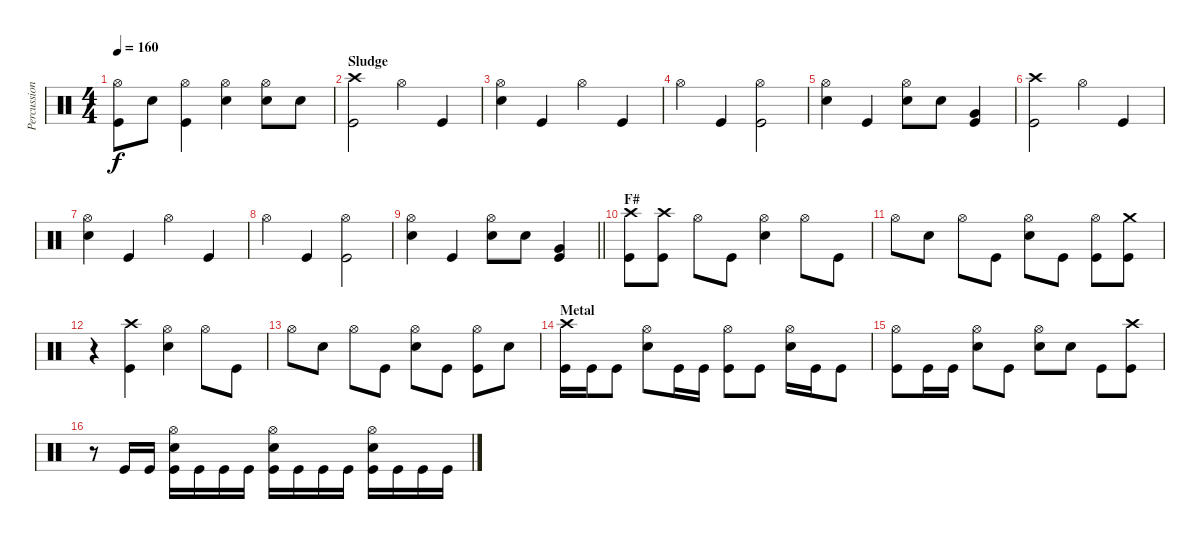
\track ("Percussion" "Percussion") {instrument percussion}
\staff {score}
\articulation defaults
\ts (4 4)
\tempo 160
\clef neutral
\ks c
("Hi-Hat (open)" "Kick (hit)").8{dy f} "Electric Snare (hit)".8 ("Hi-Hat (open)" "Kick (hit)").4 ("Hi-Hat (open)" "Electric Snare (hit)").4 ("Hi-Hat (open)" "Electric Snare (hit)").8 "Electric Snare (hit)".8 |
\section ("" "Sludge")
("Crash high (hit)" "Kick (hit)").2 "Hi-Hat (open)".4 "Kick (hit)".4 |
("Hi-Hat (open)" "Electric Snare (hit)").4 "Kick (hit)".4 "Hi-Hat (open)".4 "Kick (hit)".4 |
"Hi-Hat (open)".4 "Kick (hit)".4 ("Hi-Hat (open)" "Kick (hit)").2 |
("Hi-Hat (open)" "Electric Snare (hit)").4 "Kick (hit)".4 ("Hi-Hat (open)" "Electric Snare (hit)").8 "Electric Snare (hit)".8 ("Very Low Tom (hit)" "Kick (hit)").4 |
("Crash high (hit)" "Kick (hit)").2 "Hi-Hat (open)".4 "Kick (hit)".4 |
("Hi-Hat (open)" "Electric Snare (hit)").4 "Kick (hit)".4 "Hi-Hat (open)".4 "Kick (hit)".4 |
"Hi-Hat (open)".4 "Kick (hit)".4 ("Hi-Hat (open)" "Kick (hit)").2 |
\barLineRight lightlight
("Hi-Hat (open)" "Electric Snare (hit)").4 "Kick (hit)".4 ("Hi-Hat (open)" "Electric Snare (hit)").8 "Electric Snare (hit)".8 ("Very Low Tom (hit)" "Kick (hit)").4 |
\section ("" "F#")
("Crash high (hit)" "Kick (hit)").8 ("Crash high (hit)" "Kick (hit)").8 "Hi-Hat (open)".8 "Kick (hit)".8 ("Hi-Hat (open)" "Electric Snare (hit)").4 "Hi-Hat (open)".8 "Kick (hit)".8 |
"Hi-Hat (open)".8 "Electric Snare (hit)".8 "Hi-Hat (open)".8 "Kick (hit)".8 ("Hi-Hat (open)" "Electric Snare (hit)").8 "Kick (hit)".8 ("Hi-Hat (open)" "Kick (hit)").8 ("Crash medium (hit)" "Kick (hit)").8 |
r.4 ("Crash high (hit)" "Kick (hit)").4 ("Hi-Hat (open)" "Electric Snare (hit)").4 "Hi-Hat (open)".8 "Kick (hit)".8 |
"Hi-Hat (open)".8 "Electric Snare (hit)".8 "Hi-Hat (open)".8 "Kick (hit)".8 ("Hi-Hat (open)" "Electric Snare (hit)").8 "Kick (hit)".8 ("Hi-Hat (open)" "Kick (hit)").8 "Electric Snare (hit)".8 |
\section ("" "Metal")
("Crash high (hit)" "Kick (hit)").16 "Kick (hit)".16 "Kick (hit)".8 ("Hi-Hat (open)" "Electric Snare (hit)").8 "Kick (hit)".16 "Kick (hit)".16 ("Hi-Hat (open)" "Kick (hit)").8 "Kick (hit)".8 ("Hi-Hat (open)" "Electric Snare (hit)").16 "Kick (hit)".16 "Kick (hit)".8 |
("Hi-Hat (open)" "Kick (hit)").8 "Kick (hit)".16 "Kick (hit)".16 ("Hi-Hat (open)" "Electric Snare (hit)").8 "Kick (hit)".8 ("Hi-Hat (open)" "Electric Snare (hit)").8 "Electric Snare (hit)".8 "Kick (hit)".8 ("Crash high (hit)" "Kick (hit)").8 |
r.8 "Kick (hit)".16 "Kick (hit)".16 ("Hi-Hat (open)" "Electric Snare (hit)" "Kick (hit)").16 "Kick (hit)".16 "Kick (hit)".16 "Kick (hit)".16 ("Hi-Hat (open)" "Electric Snare (hit)" "Kick (hit)").16 "Kick (hit)".16 "Kick (hit)".16 "Kick (hit)".16 ("Hi-Hat (open)" "Electric Snare (hit)" "Kick (hit)").16 "Kick (hit)".16 "Kick (hit)".16 "Kick (hit)".16
